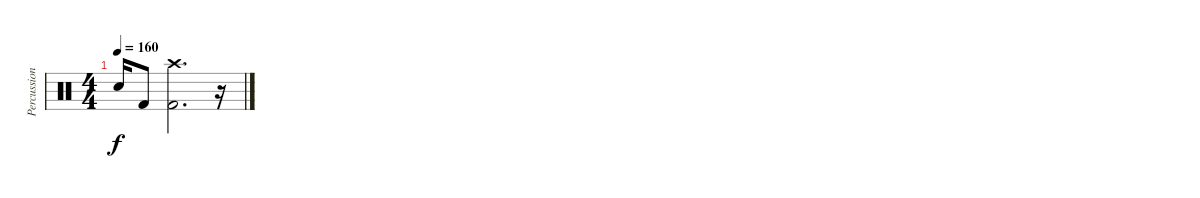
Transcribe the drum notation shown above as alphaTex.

\track ("Percussion" "Percussion") {instrument percussion}
\staff {score}
\articulation defaults
\ts (4 4)
\tempo 160
\clef neutral
\ks c "Electric Snare (hit)"{t}.16{dy f} "Kick (hit) 2".8
("Crash high (hit)" "Kick (hit) 2").2{d} r.16
